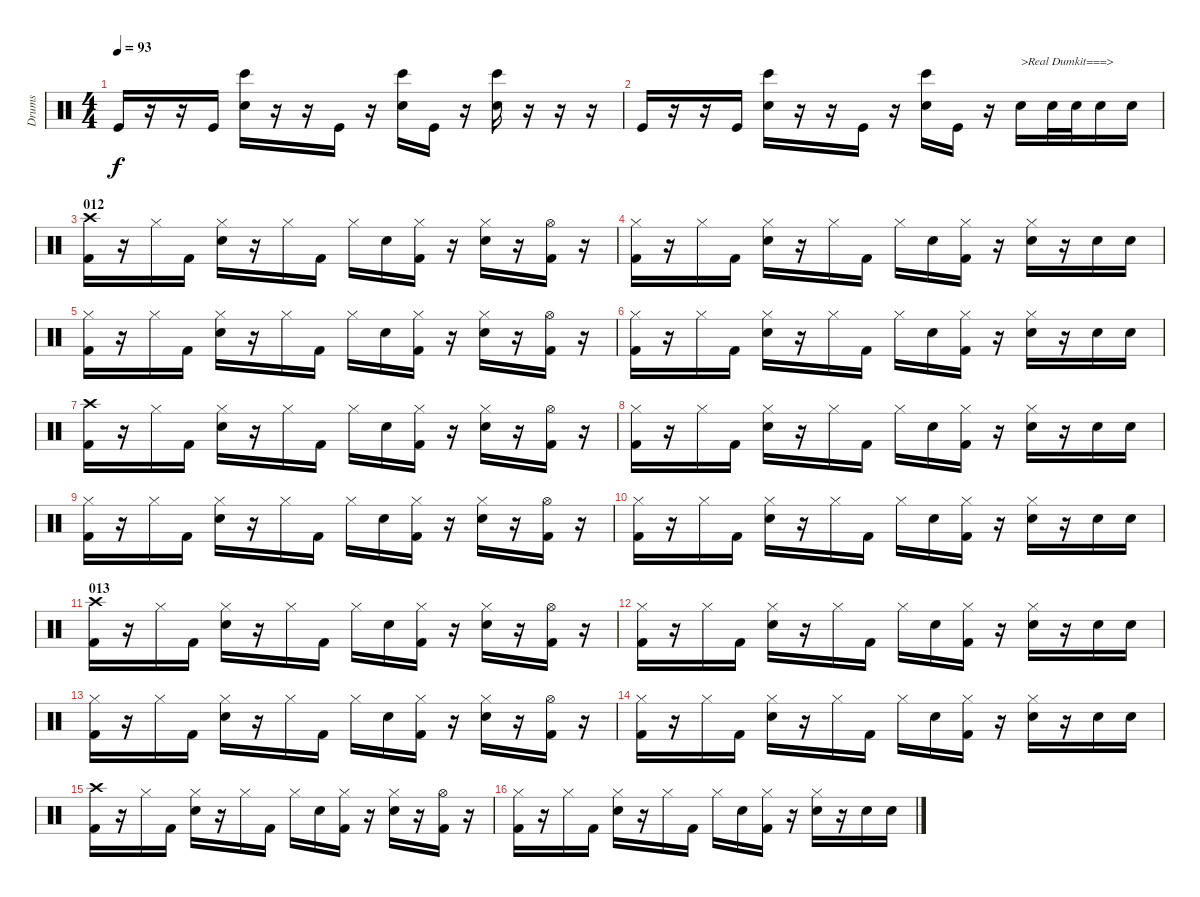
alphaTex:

\track ("Drums" "Drums") {instrument percussion}
\staff {score}
\articulation defaults
\ts (4 4)
\tempo 93
\clef neutral
\ks c "Kick (hit)".16{dy f}
r.16 r.16 "Kick (hit)".16 ("Hand Clap (hit)" "Bongo High (hit)").16 r.16 r.16 "Kick (hit)".16 r.16 ("Hand Clap (hit)" "Bongo High (hit)").16 "Kick (hit)".16 r.16 ("Hand Clap (hit)" "Bongo High (hit)").16 r.16 r.16 r.16 |
"Kick (hit)".16 r.16 r.16 "Kick (hit)".16 ("Hand Clap (hit)" "Bongo High (hit)").16 r.16 r.16 "Kick (hit)".16 r.16 ("Hand Clap (hit)" "Bongo High (hit)").16 "Kick (hit)".16 r.16 "Electric Snare (hit)".16{txt ">Real Dumkit===>"} "Electric Snare (hit)".32 "Electric Snare (hit)".32 "Electric Snare (hit)".16 "Electric Snare (hit)".16 |
\section ("" "012")
("Crash high (hit)" "Kick (hit) 2").16 r.16 "Hi-Hat (closed)".16 "Kick (hit) 2".16 ("Hi-Hat (closed)" "Electric Snare (hit)").16 r.16 "Hi-Hat (closed)".16 "Kick (hit) 2".16 "Hi-Hat (closed)".16 "Electric Snare (hit)".16 ("Hi-Hat (closed)" "Kick (hit) 2").16 r.16 ("Hi-Hat (closed)" "Electric Snare (hit)").16 r.16 ("Hi-Hat (open)" "Kick (hit) 2").16 r.16 |
("Hi-Hat (closed)" "Kick (hit) 2").16 r.16 "Hi-Hat (closed)".16 "Kick (hit) 2".16 ("Hi-Hat (closed)" "Electric Snare (hit)").16 r.16 "Hi-Hat (closed)".16 "Kick (hit) 2".16 "Hi-Hat (closed)".16 "Electric Snare (hit)".16 ("Hi-Hat (closed)" "Kick (hit) 2").16 r.16 ("Hi-Hat (closed)" "Electric Snare (hit)").16 r.16 "Electric Snare (hit)".16 "Electric Snare (hit)".16 |
("Hi-Hat (closed)" "Kick (hit) 2").16 r.16 "Hi-Hat (closed)".16 "Kick (hit) 2".16 ("Hi-Hat (closed)" "Electric Snare (hit)").16 r.16 "Hi-Hat (closed)".16 "Kick (hit) 2".16 "Hi-Hat (closed)".16 "Electric Snare (hit)".16 ("Hi-Hat (closed)" "Kick (hit) 2").16 r.16 ("Hi-Hat (closed)" "Electric Snare (hit)").16 r.16 ("Hi-Hat (open)" "Kick (hit) 2").16 r.16 |
("Hi-Hat (closed)" "Kick (hit) 2").16 r.16 "Hi-Hat (closed)".16 "Kick (hit) 2".16 ("Hi-Hat (closed)" "Electric Snare (hit)").16 r.16 "Hi-Hat (closed)".16 "Kick (hit) 2".16 "Hi-Hat (closed)".16 "Electric Snare (hit)".16 ("Hi-Hat (closed)" "Kick (hit) 2").16 r.16 ("Hi-Hat (closed)" "Electric Snare (hit)").16 r.16 "Electric Snare (hit)".16 "Electric Snare (hit)".16 |
("Crash high (hit)" "Kick (hit) 2").16 r.16 "Hi-Hat (closed)".16 "Kick (hit) 2".16 ("Hi-Hat (closed)" "Electric Snare (hit)").16 r.16 "Hi-Hat (closed)".16 "Kick (hit) 2".16 "Hi-Hat (closed)".16 "Electric Snare (hit)".16 ("Hi-Hat (closed)" "Kick (hit) 2").16 r.16 ("Hi-Hat (closed)" "Electric Snare (hit)").16 r.16 ("Hi-Hat (open)" "Kick (hit) 2").16 r.16 |
("Hi-Hat (closed)" "Kick (hit) 2").16 r.16 "Hi-Hat (closed)".16 "Kick (hit) 2".16 ("Hi-Hat (closed)" "Electric Snare (hit)").16 r.16 "Hi-Hat (closed)".16 "Kick (hit) 2".16 "Hi-Hat (closed)".16 "Electric Snare (hit)".16 ("Hi-Hat (closed)" "Kick (hit) 2").16 r.16 ("Hi-Hat (closed)" "Electric Snare (hit)").16 r.16 "Electric Snare (hit)".16 "Electric Snare (hit)".16 |
("Hi-Hat (closed)" "Kick (hit) 2").16 r.16 "Hi-Hat (closed)".16 "Kick (hit) 2".16 ("Hi-Hat (closed)" "Electric Snare (hit)").16 r.16 "Hi-Hat (closed)".16 "Kick (hit) 2".16 "Hi-Hat (closed)".16 "Electric Snare (hit)".16 ("Hi-Hat (closed)" "Kick (hit) 2").16 r.16 ("Hi-Hat (closed)" "Electric Snare (hit)").16 r.16 ("Hi-Hat (open)" "Kick (hit) 2").16 r.16 |
("Hi-Hat (closed)" "Kick (hit) 2").16 r.16 "Hi-Hat (closed)".16 "Kick (hit) 2".16 ("Hi-Hat (closed)" "Electric Snare (hit)").16 r.16 "Hi-Hat (closed)".16 "Kick (hit) 2".16 "Hi-Hat (closed)".16 "Electric Snare (hit)".16 ("Hi-Hat (closed)" "Kick (hit) 2").16 r.16 ("Hi-Hat (closed)" "Electric Snare (hit)").16 r.16 "Electric Snare (hit)".16 "Electric Snare (hit)".16 |
\section ("" "013")
("Crash high (hit)" "Kick (hit) 2").16 r.16 "Hi-Hat (closed)".16 "Kick (hit) 2".16 ("Hi-Hat (closed)" "Electric Snare (hit)").16 r.16 "Hi-Hat (closed)".16 "Kick (hit) 2".16 "Hi-Hat (closed)".16 "Electric Snare (hit)".16 ("Hi-Hat (closed)" "Kick (hit) 2").16 r.16 ("Hi-Hat (closed)" "Electric Snare (hit)").16 r.16 ("Hi-Hat (open)" "Kick (hit) 2").16 r.16 |
("Hi-Hat (closed)" "Kick (hit) 2").16 r.16 "Hi-Hat (closed)".16 "Kick (hit) 2".16 ("Hi-Hat (closed)" "Electric Snare (hit)").16 r.16 "Hi-Hat (closed)".16 "Kick (hit) 2".16 "Hi-Hat (closed)".16 "Electric Snare (hit)".16 ("Hi-Hat (closed)" "Kick (hit) 2").16 r.16 ("Hi-Hat (closed)" "Electric Snare (hit)").16 r.16 "Electric Snare (hit)".16 "Electric Snare (hit)".16 |
("Hi-Hat (closed)" "Kick (hit) 2").16 r.16 "Hi-Hat (closed)".16 "Kick (hit) 2".16 ("Hi-Hat (closed)" "Electric Snare (hit)").16 r.16 "Hi-Hat (closed)".16 "Kick (hit) 2".16 "Hi-Hat (closed)".16 "Electric Snare (hit)".16 ("Hi-Hat (closed)" "Kick (hit) 2").16 r.16 ("Hi-Hat (closed)" "Electric Snare (hit)").16 r.16 ("Hi-Hat (open)" "Kick (hit) 2").16 r.16 |
("Hi-Hat (closed)" "Kick (hit) 2").16 r.16 "Hi-Hat (closed)".16 "Kick (hit) 2".16 ("Hi-Hat (closed)" "Electric Snare (hit)").16 r.16 "Hi-Hat (closed)".16 "Kick (hit) 2".16 "Hi-Hat (closed)".16 "Electric Snare (hit)".16 ("Hi-Hat (closed)" "Kick (hit) 2").16 r.16 ("Hi-Hat (closed)" "Electric Snare (hit)").16 r.16 "Electric Snare (hit)".16 "Electric Snare (hit)".16 |
("Crash high (hit)" "Kick (hit) 2").16 r.16 "Hi-Hat (closed)".16 "Kick (hit) 2".16 ("Hi-Hat (closed)" "Electric Snare (hit)").16 r.16 "Hi-Hat (closed)".16 "Kick (hit) 2".16 "Hi-Hat (closed)".16 "Electric Snare (hit)".16 ("Hi-Hat (closed)" "Kick (hit) 2").16 r.16 ("Hi-Hat (closed)" "Electric Snare (hit)").16 r.16 ("Hi-Hat (open)" "Kick (hit) 2").16 r.16 |
("Hi-Hat (closed)" "Kick (hit) 2").16 r.16 "Hi-Hat (closed)".16 "Kick (hit) 2".16 ("Hi-Hat (closed)" "Electric Snare (hit)").16 r.16 "Hi-Hat (closed)".16 "Kick (hit) 2".16 "Hi-Hat (closed)".16 "Electric Snare (hit)".16 ("Hi-Hat (closed)" "Kick (hit) 2").16 r.16 ("Hi-Hat (closed)" "Electric Snare (hit)").16 r.16 "Electric Snare (hit)".16 "Electric Snare (hit)".16
